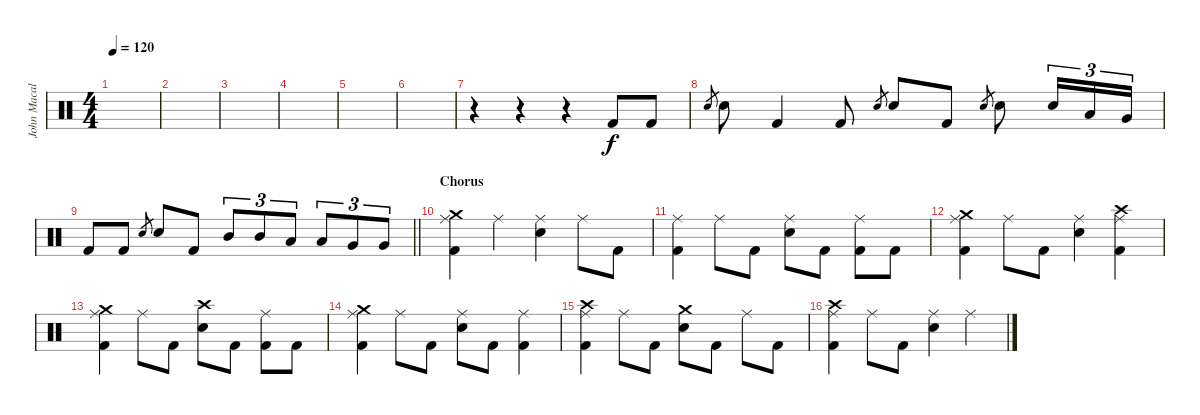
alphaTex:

\track ("John Macaluso" "John Macal") {instrument percussion}
\staff {score}
\articulation defaults
\ts (4 4)
\tempo 120
\clef neutral
\ks c
|
|
|
|
|
|
r.4 r.4 r.4 "Kick (hit) 2".8 "Kick (hit) 2".8 |
"Snare (hit) 2".8{gr} "Snare (hit) 2".8 "Kick (hit) 2".4 "Kick (hit) 2".8 "Snare (hit) 2".8{gr} "Snare (hit) 2".8 "Kick (hit) 2".8 "Snare (hit) 2".8{gr} "Snare (hit) 2".8 "Snare (hit) 2".16{tu (3 2)} "Low Tom (hit)".16{tu (3 2)} "Very Low Tom (hit)".16{tu (3 2)} |
\barLineRight lightlight "Kick (hit) 2".8 "Kick (hit) 2".8 "Snare (hit) 2".8{gr} "Snare (hit) 2".8 "Kick (hit) 2".8 "Mid Tom (hit)".8{tu (3 2)} "Mid Tom (hit)".8{tu (3 2)} "Low Tom (hit)".8{tu (3 2)} "Low Tom (hit)".8{tu (3 2)} "Very Low Tom (hit)".8{tu (3 2)} "Very Low Tom (hit)".8{tu (3 2)}
|
\section ("" "Chorus")
("Crash medium (hit)" "Ride (middle)" "Kick (hit) 2").4 "Ride (middle)".4 ("Ride (middle)" "Snare (hit) 2").4 "Ride (middle)".8 "Kick (hit) 2".8 |
("Ride (middle)" "Kick (hit) 2").4 "Ride (middle)".8 "Kick (hit) 2".8 ("Ride (middle)" "Snare (hit) 2").8 "Kick (hit) 2".8 ("Ride (middle)" "Kick (hit) 2").8 "Kick (hit) 2".8 |
("Crash medium (hit)" "Ride (middle)" "Kick (hit) 2").4 "Ride (middle)".8 "Kick (hit) 2".8 ("Ride (middle)" "Snare (hit) 2").4 ("Crash high (hit)" "Ride (middle)" "Kick (hit) 2").4 |
("Crash medium (hit)" "Ride (middle)" "Kick (hit) 2").4 "Ride (middle)".8 "Kick (hit) 2".8 ("Crash high (hit)" "Snare (hit) 2").8 "Kick (hit) 2".8 ("Ride (middle)" "Kick (hit) 2").8 "Kick (hit) 2".8 |
("Crash medium (hit)" "Ride (middle)" "Kick (hit) 2").4 "Ride (middle)".8 "Kick (hit) 2".8 ("Ride (middle)" "Snare (hit) 2").8 "Kick (hit) 2".8 ("Ride (middle)" "Kick (hit) 2").4 |
("Crash high (hit)" "Ride (middle)" "Kick (hit) 2").4 "Ride (middle)".8 "Kick (hit) 2".8 ("Crash medium (hit)" "Snare (hit) 2").8 "Kick (hit) 2".8 "Ride (middle)".8 "Kick (hit) 2".8 |
("Crash high (hit)" "Ride (middle)" "Kick (hit) 2").4 "Ride (middle)".8 "Kick (hit) 2".8 ("Ride (middle)" "Snare (hit) 2").4 "Ride (middle)".4
